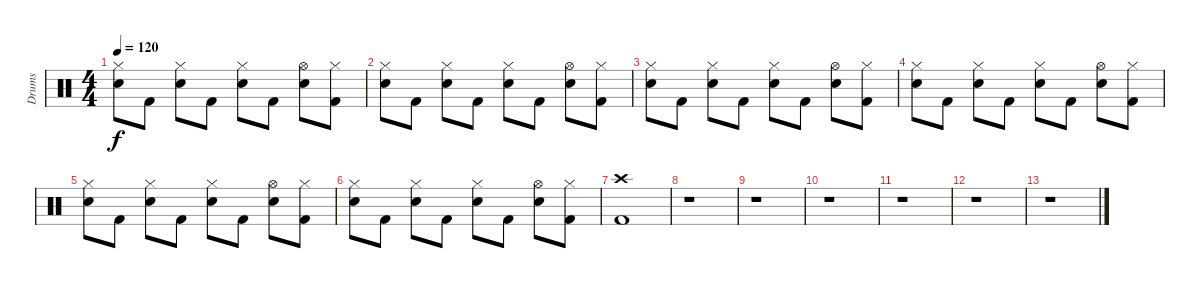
\track ("Drums" "Drums") {instrument percussion}
\staff {score}
\articulation defaults
\ts (4 4)
\tempo 120
\clef neutral
\ks c
("Hi-Hat (closed)" "Electric Snare (hit)").8{dy f} "Kick (hit) 2".8 ("Hi-Hat (closed)" "Electric Snare (hit)").8 "Kick (hit) 2".8 ("Hi-Hat (closed)" "Electric Snare (hit)").8 "Kick (hit) 2".8 ("Hi-Hat (open)" "Electric Snare (hit)").8 ("Hi-Hat (closed)" "Kick (hit) 2").8 |
("Hi-Hat (closed)" "Electric Snare (hit)").8 "Kick (hit) 2".8 ("Hi-Hat (closed)" "Electric Snare (hit)").8 "Kick (hit) 2".8 ("Hi-Hat (closed)" "Electric Snare (hit)").8 "Kick (hit) 2".8 ("Hi-Hat (open)" "Electric Snare (hit)").8 ("Hi-Hat (closed)" "Kick (hit) 2").8 |
("Hi-Hat (closed)" "Electric Snare (hit)").8 "Kick (hit) 2".8 ("Hi-Hat (closed)" "Electric Snare (hit)").8 "Kick (hit) 2".8 ("Hi-Hat (closed)" "Electric Snare (hit)").8 "Kick (hit) 2".8 ("Hi-Hat (open)" "Electric Snare (hit)").8 ("Hi-Hat (closed)" "Kick (hit) 2").8 |
("Hi-Hat (closed)" "Electric Snare (hit)").8 "Kick (hit) 2".8 ("Hi-Hat (closed)" "Electric Snare (hit)").8 "Kick (hit) 2".8 ("Hi-Hat (closed)" "Electric Snare (hit)").8 "Kick (hit) 2".8 ("Hi-Hat (open)" "Electric Snare (hit)").8 ("Hi-Hat (closed)" "Kick (hit) 2").8 |
("Hi-Hat (closed)" "Electric Snare (hit)").8 "Kick (hit) 2".8 ("Hi-Hat (closed)" "Electric Snare (hit)").8 "Kick (hit) 2".8 ("Hi-Hat (closed)" "Electric Snare (hit)").8 "Kick (hit) 2".8 ("Hi-Hat (open)" "Electric Snare (hit)").8 ("Hi-Hat (closed)" "Kick (hit) 2").8 |
("Hi-Hat (closed)" "Electric Snare (hit)").8 "Kick (hit) 2".8 ("Hi-Hat (closed)" "Electric Snare (hit)").8 "Kick (hit) 2".8 ("Hi-Hat (closed)" "Electric Snare (hit)").8 "Kick (hit) 2".8 ("Hi-Hat (open)" "Electric Snare (hit)").8 ("Hi-Hat (closed)" "Kick (hit) 2").8 |
("Crash high (hit)" "Kick (hit) 2").1 |
r.1 |
r.1 |
r.1 |
r.1 |
r.1 |
r.1
